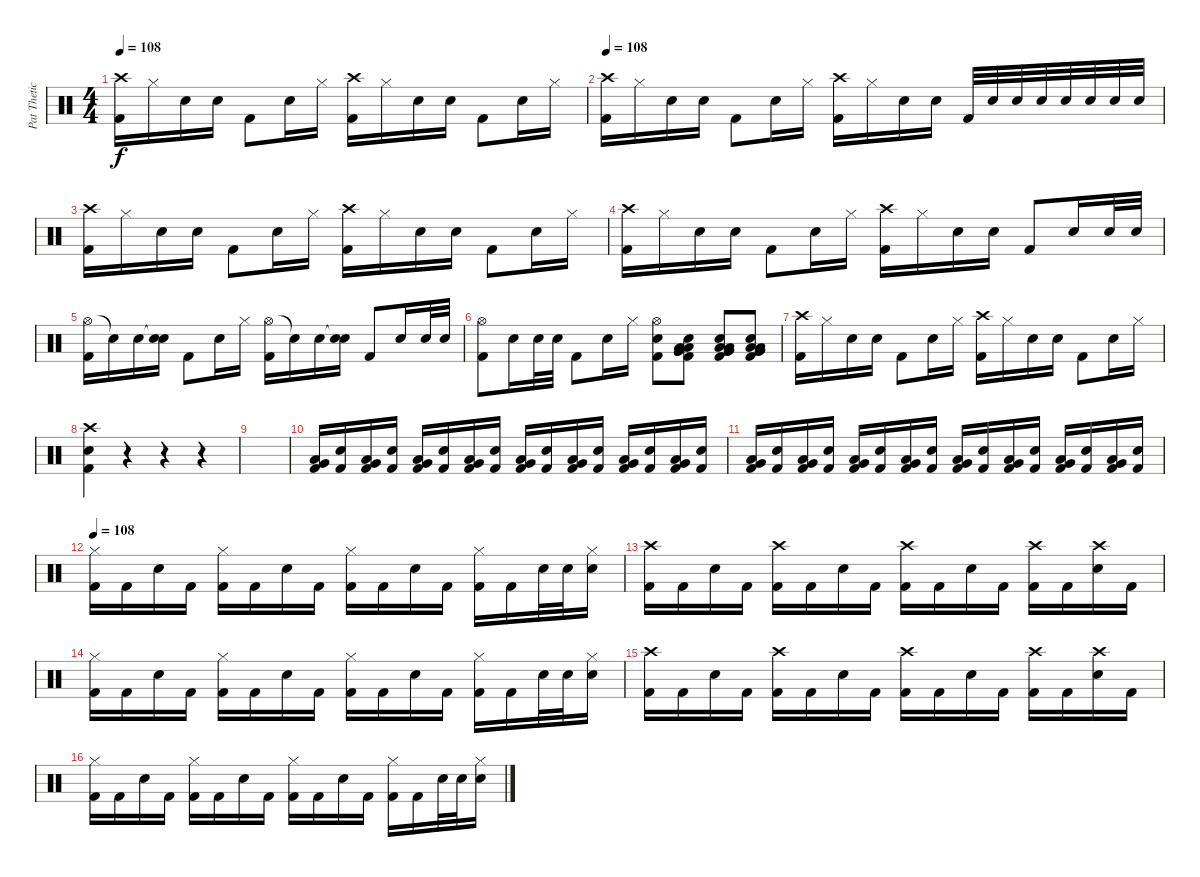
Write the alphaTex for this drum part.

\track ("Pat Thetic" "Pat Thetic") {instrument percussion}
\staff {score}
\articulation defaults
\ts (4 4)
\tempo 108
\clef neutral
\ks c
("Crash high (hit)" "Kick (hit) 2").16{dy f} "Hi-Hat (closed)".16 "Snare (hit) 2".16 "Snare (hit) 2".16 "Kick (hit) 2".8 "Snare (hit) 2".16 "Hi-Hat (closed)".16 ("Crash high (hit)" "Kick (hit) 2").16 "Hi-Hat (closed)".16 "Snare (hit) 2".16 "Snare (hit) 2".16 "Kick (hit) 2".8 "Snare (hit) 2".16 "Hi-Hat (closed)".16 |
\tempo 108
("Crash high (hit)" "Kick (hit) 2").16 "Hi-Hat (closed)".16 "Snare (hit) 2".16 "Snare (hit) 2".16 "Kick (hit) 2".8 "Snare (hit) 2".16 "Hi-Hat (closed)".16 ("Crash high (hit)" "Kick (hit) 2").16 "Hi-Hat (closed)".16 "Snare (hit) 2".16 "Snare (hit) 2".16 "Kick (hit) 2".32 "Snare (hit) 2".32 "Snare (hit) 2".32 "Snare (hit) 2".32 "Snare (hit) 2".32 "Snare (hit) 2".32 "Snare (hit) 2".32 "Snare (hit) 2".32 |
("Crash high (hit)" "Kick (hit) 2").16 "Hi-Hat (closed)".16 "Snare (hit) 2".16 "Snare (hit) 2".16 "Kick (hit) 2".8 "Snare (hit) 2".16 "Hi-Hat (closed)".16 ("Crash high (hit)" "Kick (hit) 2").16 "Hi-Hat (closed)".16 "Snare (hit) 2".16 "Snare (hit) 2".16 "Kick (hit) 2".8 "Snare (hit) 2".16 "Hi-Hat (closed)".16 |
("Crash high (hit)" "Kick (hit) 2").16 "Hi-Hat (closed)".16 "Snare (hit) 2".16 "Snare (hit) 2".16 "Kick (hit) 2".8 "Snare (hit) 2".16 "Hi-Hat (closed)".16 ("Crash high (hit)" "Kick (hit) 2").16 "Hi-Hat (closed)".16 "Snare (hit) 2".16 "Snare (hit) 2".16 "Kick (hit) 2".8 "Snare (hit) 2".16 "Snare (hit) 2".32 "Snare (hit) 2".32 |
("Hi-Hat (open)" "Kick (hit) 2").16 "Snare (hit)"{t}.16 "Snare (hit) 2".16 ("Snare (hit)"{t} "Snare (hit) 2").16 "Kick (hit) 2".8 "Snare (hit) 2".16 "Hi-Hat (closed)".16 ("Hi-Hat (open)" "Kick (hit) 2").16 "Snare (hit)"{t}.16 "Snare (hit) 2".16 ("Snare (hit)"{t} "Snare (hit) 2").16 "Kick (hit) 2".8 "Snare (hit) 2".16 "Snare (hit) 2".32 "Snare (hit) 2".32 |
("Hi-Hat (open)" "Kick (hit) 2").8 "Snare (hit) 2".16 "Snare (hit) 2".32 "Snare (hit) 2".32 "Kick (hit) 2".8 "Snare (hit) 2".16 "Hi-Hat (closed)".16 ("Snare (hit) 2" "Hi-Hat (open)" "Kick (hit) 2").8 ("Low Floor Tom (hit)" "Low Floor Tom (hit)" "Kick (hit) 2" "Very Low Tom (hit)" "Very Low Tom (hit)" "Snare (hit) 2").8 ("Low Floor Tom (hit)" "Low Floor Tom (hit)" "Kick (hit) 2" "Very Low Tom (hit)" "Very Low Tom (hit)" "Snare (hit) 2").8 ("Low Floor Tom (hit)" "Low Floor Tom (hit)" "Kick (hit) 2" "Very Low Tom (hit)" "Very Low Tom (hit)" "Snare (hit) 2").8 |
("Crash high (hit)" "Kick (hit) 2").16 "Hi-Hat (closed)".16 "Snare (hit) 2".16 "Snare (hit) 2".16 "Kick (hit) 2".8 "Snare (hit) 2".16 "Hi-Hat (closed)".16 ("Crash high (hit)" "Kick (hit) 2").16 "Hi-Hat (closed)".16 "Snare (hit) 2".16 "Snare (hit) 2".16 "Kick (hit) 2".8 "Snare (hit) 2".16 "Hi-Hat (closed)".16 |
("Snare (hit) 2" "Crash high (hit)" "Kick (hit) 2").4 r.4 r.4 r.4 |
|
("Very Low Tom (hit)" "Low Floor Tom (hit)" "Kick (hit) 2").16{volume 8} ("Kick (hit) 2" "Snare (hit) 2").16{volume 13} ("Very Low Tom (hit)" "Low Floor Tom (hit)" "Kick (hit) 2").16 ("Kick (hit) 2" "Snare (hit) 2").16 ("Very Low Tom (hit)" "Low Floor Tom (hit)" "Kick (hit) 2").16 ("Kick (hit) 2" "Snare (hit) 2").16 ("Very Low Tom (hit)" "Low Floor Tom (hit)" "Kick (hit) 2").16 ("Kick (hit) 2" "Snare (hit) 2").16 ("Very Low Tom (hit)" "Low Floor Tom (hit)" "Kick (hit) 2").16 ("Kick (hit) 2" "Snare (hit) 2").16 ("Very Low Tom (hit)" "Low Floor Tom (hit)" "Kick (hit) 2").16 ("Kick (hit) 2" "Snare (hit) 2").16 ("Very Low Tom (hit)" "Low Floor Tom (hit)" "Kick (hit) 2").16 ("Kick (hit) 2" "Snare (hit) 2").16 ("Very Low Tom (hit)" "Low Floor Tom (hit)" "Kick (hit) 2").16 ("Kick (hit) 2" "Snare (hit) 2").16 |
("Very Low Tom (hit)" "Low Floor Tom (hit)" "Kick (hit) 2").16 ("Kick (hit) 2" "Snare (hit) 2").16 ("Very Low Tom (hit)" "Low Floor Tom (hit)" "Kick (hit) 2").16 ("Kick (hit) 2" "Snare (hit) 2").16 ("Very Low Tom (hit)" "Low Floor Tom (hit)" "Kick (hit) 2").16 ("Kick (hit) 2" "Snare (hit) 2").16 ("Very Low Tom (hit)" "Low Floor Tom (hit)" "Kick (hit) 2").16 ("Kick (hit) 2" "Snare (hit) 2").16 ("Very Low Tom (hit)" "Low Floor Tom (hit)" "Kick (hit) 2").16 ("Kick (hit) 2" "Snare (hit) 2").16 ("Very Low Tom (hit)" "Low Floor Tom (hit)" "Kick (hit) 2").16 ("Kick (hit) 2" "Snare (hit) 2").16 ("Very Low Tom (hit)" "Low Floor Tom (hit)" "Kick (hit) 2").16 ("Kick (hit) 2" "Snare (hit) 2").16 ("Very Low Tom (hit)" "Low Floor Tom (hit)" "Kick (hit) 2").16 ("Kick (hit) 2" "Snare (hit) 2").16 |
\tempo 108
("Hi-Hat (closed)" "Kick (hit) 2").16 "Kick (hit) 2".16 "Snare (hit) 2".16 "Kick (hit) 2".16 ("Hi-Hat (closed)" "Kick (hit) 2").16 "Kick (hit) 2".16 "Snare (hit) 2".16 "Kick (hit) 2".16 ("Hi-Hat (closed)" "Kick (hit) 2").16 "Kick (hit) 2".16 "Snare (hit) 2".16 "Kick (hit) 2".16 ("Hi-Hat (closed)" "Kick (hit) 2").16 "Kick (hit) 2".16 "Snare (hit) 2".32 "Snare (hit) 2".32 ("Hi-Hat (closed)" "Snare (hit) 2").16 |
("Crash high (hit)" "Kick (hit) 2").16 "Kick (hit) 2".16 "Snare (hit) 2".16 "Kick (hit) 2".16 ("Crash high (hit)" "Kick (hit) 2").16 "Kick (hit) 2".16 "Snare (hit) 2".16 "Kick (hit) 2".16 ("Crash high (hit)" "Kick (hit) 2").16 "Kick (hit) 2".16 "Snare (hit) 2".16 "Kick (hit) 2".16 ("Crash high (hit)" "Kick (hit) 2").16 "Kick (hit) 2".16 ("Crash high (hit)" "Snare (hit) 2").16 "Kick (hit) 2".16 |
("Hi-Hat (closed)" "Kick (hit) 2").16 "Kick (hit) 2".16 "Snare (hit) 2".16 "Kick (hit) 2".16 ("Hi-Hat (closed)" "Kick (hit) 2").16 "Kick (hit) 2".16 "Snare (hit) 2".16 "Kick (hit) 2".16 ("Hi-Hat (closed)" "Kick (hit) 2").16 "Kick (hit) 2".16 "Snare (hit) 2".16 "Kick (hit) 2".16 ("Hi-Hat (closed)" "Kick (hit) 2").16 "Kick (hit) 2".16 "Snare (hit) 2".32 "Snare (hit) 2".32 ("Hi-Hat (closed)" "Snare (hit) 2").16 |
("Crash high (hit)" "Kick (hit) 2").16 "Kick (hit) 2".16 "Snare (hit) 2".16 "Kick (hit) 2".16 ("Crash high (hit)" "Kick (hit) 2").16 "Kick (hit) 2".16 "Snare (hit) 2".16 "Kick (hit) 2".16 ("Crash high (hit)" "Kick (hit) 2").16 "Kick (hit) 2".16 "Snare (hit) 2".16 "Kick (hit) 2".16 ("Crash high (hit)" "Kick (hit) 2").16 "Kick (hit) 2".16 ("Crash high (hit)" "Snare (hit) 2").16 "Kick (hit) 2".16 |
("Hi-Hat (closed)" "Kick (hit) 2").16 "Kick (hit) 2".16 "Snare (hit) 2".16 "Kick (hit) 2".16 ("Hi-Hat (closed)" "Kick (hit) 2").16 "Kick (hit) 2".16 "Snare (hit) 2".16 "Kick (hit) 2".16 ("Hi-Hat (closed)" "Kick (hit) 2").16 "Kick (hit) 2".16 "Snare (hit) 2".16 "Kick (hit) 2".16 ("Hi-Hat (closed)" "Kick (hit) 2").16 "Kick (hit) 2".16 "Snare (hit) 2".32 "Snare (hit) 2".32 ("Hi-Hat (closed)" "Snare (hit) 2").16
